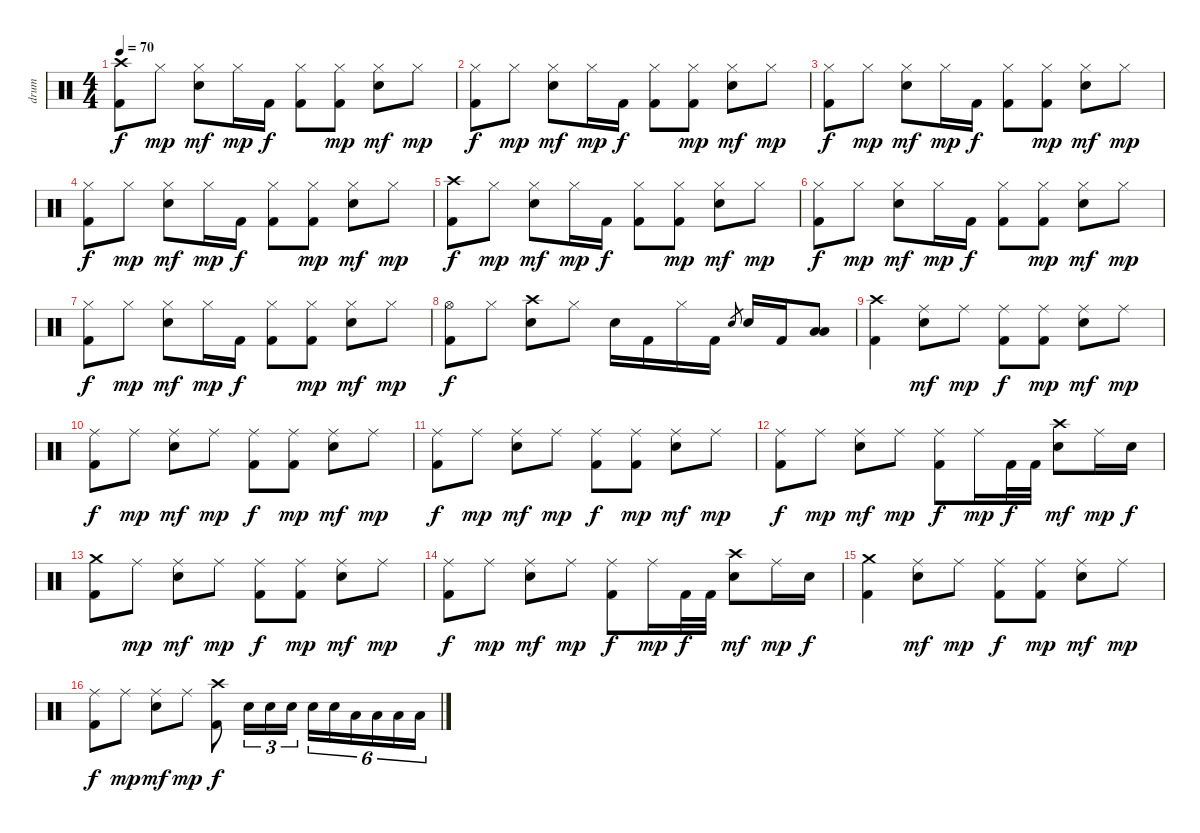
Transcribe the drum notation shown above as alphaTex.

\track ("drum" "drum") {instrument percussion}
\staff {score}
\articulation defaults
\ts (4 4)
\tempo 70
\clef neutral
\ks c
("Crash high (hit)" "Kick (hit) 2").8{dy f} "Hi-Hat (closed)".8{dy mp} ("Hi-Hat (closed)" "Electric Snare (hit)").8{dy mf} "Hi-Hat (closed)".16{dy mp} "Kick (hit) 2".16{dy f} ("Hi-Hat (closed)" "Kick (hit) 2").8 ("Hi-Hat (closed)" "Kick (hit) 2").8{dy mp} ("Hi-Hat (closed)" "Electric Snare (hit)").8{dy mf} "Hi-Hat (closed)".8{dy mp} |
("Hi-Hat (closed)" "Kick (hit) 2").8{dy f} "Hi-Hat (closed)".8{dy mp} ("Hi-Hat (closed)" "Electric Snare (hit)").8{dy mf} "Hi-Hat (closed)".16{dy mp} "Kick (hit) 2".16{dy f} ("Hi-Hat (closed)" "Kick (hit) 2").8 ("Hi-Hat (closed)" "Kick (hit) 2").8{dy mp} ("Hi-Hat (closed)" "Electric Snare (hit)").8{dy mf} "Hi-Hat (closed)".8{dy mp} |
("Hi-Hat (closed)" "Kick (hit) 2").8{dy f} "Hi-Hat (closed)".8{dy mp} ("Hi-Hat (closed)" "Electric Snare (hit)").8{dy mf} "Hi-Hat (closed)".16{dy mp} "Kick (hit) 2".16{dy f} ("Hi-Hat (closed)" "Kick (hit) 2").8 ("Hi-Hat (closed)" "Kick (hit) 2").8{dy mp} ("Hi-Hat (closed)" "Electric Snare (hit)").8{dy mf} "Hi-Hat (closed)".8{dy mp} |
("Hi-Hat (closed)" "Kick (hit) 2").8{dy f} "Hi-Hat (closed)".8{dy mp} ("Hi-Hat (closed)" "Electric Snare (hit)").8{dy mf} "Hi-Hat (closed)".16{dy mp} "Kick (hit) 2".16{dy f} ("Hi-Hat (closed)" "Kick (hit) 2").8 ("Hi-Hat (closed)" "Kick (hit) 2").8{dy mp} ("Hi-Hat (closed)" "Electric Snare (hit)").8{dy mf} "Hi-Hat (closed)".8{dy mp} |
("Crash high (hit)" "Kick (hit) 2").8{dy f} "Hi-Hat (closed)".8{dy mp} ("Hi-Hat (closed)" "Electric Snare (hit)").8{dy mf} "Hi-Hat (closed)".16{dy mp} "Kick (hit) 2".16{dy f} ("Hi-Hat (closed)" "Kick (hit) 2").8 ("Hi-Hat (closed)" "Kick (hit) 2").8{dy mp} ("Hi-Hat (closed)" "Electric Snare (hit)").8{dy mf} "Hi-Hat (closed)".8{dy mp} |
("Hi-Hat (closed)" "Kick (hit) 2").8{dy f} "Hi-Hat (closed)".8{dy mp} ("Hi-Hat (closed)" "Electric Snare (hit)").8{dy mf} "Hi-Hat (closed)".16{dy mp} "Kick (hit) 2".16{dy f} ("Hi-Hat (closed)" "Kick (hit) 2").8 ("Hi-Hat (closed)" "Kick (hit) 2").8{dy mp} ("Hi-Hat (closed)" "Electric Snare (hit)").8{dy mf} "Hi-Hat (closed)".8{dy mp} |
("Hi-Hat (closed)" "Kick (hit) 2").8{dy f} "Hi-Hat (closed)".8{dy mp} ("Hi-Hat (closed)" "Electric Snare (hit)").8{dy mf} "Hi-Hat (closed)".16{dy mp} "Kick (hit) 2".16{dy f} ("Hi-Hat (closed)" "Kick (hit) 2").8 ("Hi-Hat (closed)" "Kick (hit) 2").8{dy mp} ("Hi-Hat (closed)" "Electric Snare (hit)").8{dy mf} "Hi-Hat (closed)".8{dy mp} |
("Hi-Hat (open)" "Kick (hit) 2").8{dy f} "Hi-Hat (closed)".8 ("Crash high (hit)" "Electric Snare (hit)").8 "Hi-Hat (closed)".8 "Electric Snare (hit)".16 "Kick (hit) 2".16 "Hi-Hat (closed)".16 "Kick (hit) 2".16 "Electric Snare (hit)".8{gr} "Electric Snare (hit)".16 "Kick (hit) 2".16 ("Low Tom (hit)" "Low Floor Tom (hit)").8 |
("Crash high (hit)" "Kick (hit) 2").4 ("Ride (middle)" "Electric Snare (hit)").8{dy mf} "Ride (middle)".8{dy mp} ("Ride (middle)" "Kick (hit) 2").8{dy f} ("Ride (middle)" "Kick (hit) 2").8{dy mp} ("Ride (middle)" "Electric Snare (hit)").8{dy mf} "Ride (middle)".8{dy mp} |
("Ride (middle)" "Kick (hit) 2").8{dy f} "Ride (middle)".8{dy mp} ("Ride (middle)" "Electric Snare (hit)").8{dy mf} "Ride (middle)".8{dy mp} ("Ride (middle)" "Kick (hit) 2").8{dy f} ("Ride (middle)" "Kick (hit) 2").8{dy mp} ("Ride (middle)" "Electric Snare (hit)").8{dy mf} "Ride (middle)".8{dy mp} |
("Ride (middle)" "Kick (hit) 2").8{dy f} "Ride (middle)".8{dy mp} ("Ride (middle)" "Electric Snare (hit)").8{dy mf} "Ride (middle)".8{dy mp} ("Ride (middle)" "Kick (hit) 2").8{dy f} ("Ride (middle)" "Kick (hit) 2").8{dy mp} ("Ride (middle)" "Electric Snare (hit)").8{dy mf} "Ride (middle)".8{dy mp} |
("Ride (middle)" "Kick (hit) 2").8{dy f} "Ride (middle)".8{dy mp} ("Ride (middle)" "Electric Snare (hit)").8{dy mf} "Ride (middle)".8{dy mp} ("Ride (middle)" "Kick (hit) 2").8{dy f} "Ride (middle)".16{dy mp} "Kick (hit) 2".32{dy f} "Kick (hit) 2".32 ("Crash high (hit)" "Electric Snare (hit)").8{dy mf} "Ride (middle)".16{dy mp} "Electric Snare (hit)".16{dy f} |
("Crash medium (hit)" "Kick (hit) 2").8 "Ride (middle)".8{dy mp} ("Ride (middle)" "Electric Snare (hit)").8{dy mf} "Ride (middle)".8{dy mp} ("Ride (middle)" "Kick (hit) 2").8{dy f} ("Ride (middle)" "Kick (hit) 2").8{dy mp} ("Ride (middle)" "Electric Snare (hit)").8{dy mf} "Ride (middle)".8{dy mp} |
("Ride (middle)" "Kick (hit) 2").8{dy f} "Ride (middle)".8{dy mp} ("Ride (middle)" "Electric Snare (hit)").8{dy mf} "Ride (middle)".8{dy mp} ("Ride (middle)" "Kick (hit) 2").8{dy f} "Ride (middle)".16{dy mp} "Kick (hit) 2".32{dy f} "Kick (hit) 2".32 ("Crash high (hit)" "Electric Snare (hit)").8{dy mf} "Ride (middle)".16{dy mp} "Electric Snare (hit)".16{dy f} |
("Crash medium (hit)" "Kick (hit) 2").4 ("Ride (middle)" "Electric Snare (hit)").8{dy mf} "Ride (middle)".8{dy mp} ("Ride (middle)" "Kick (hit) 2").8{dy f} ("Ride (middle)" "Kick (hit) 2").8{dy mp} ("Ride (middle)" "Electric Snare (hit)").8{dy mf} "Ride (middle)".8{dy mp} |
("Ride (middle)" "Kick (hit) 2").8{dy f} "Ride (middle)".8{dy mp} ("Ride (middle)" "Electric Snare (hit)").8{dy mf} "Ride (middle)".8{dy mp} ("Crash high (hit)" "Kick (hit) 2").8{dy f} "Electric Snare (hit)".16{tu (3 2)} "Electric Snare (hit)".16{tu (3 2)} "Electric Snare (hit)".16{tu (3 2)} "Electric Snare (hit)".16{tu (6 4)} "Electric Snare (hit)".16{tu (6 4)} "Low Tom (hit)".16{tu (6 4)} "Low Tom (hit)".16{tu (6 4)} "Low Tom (hit)".16{tu (6 4)} "Low Tom (hit)".16{tu (6 4)}
